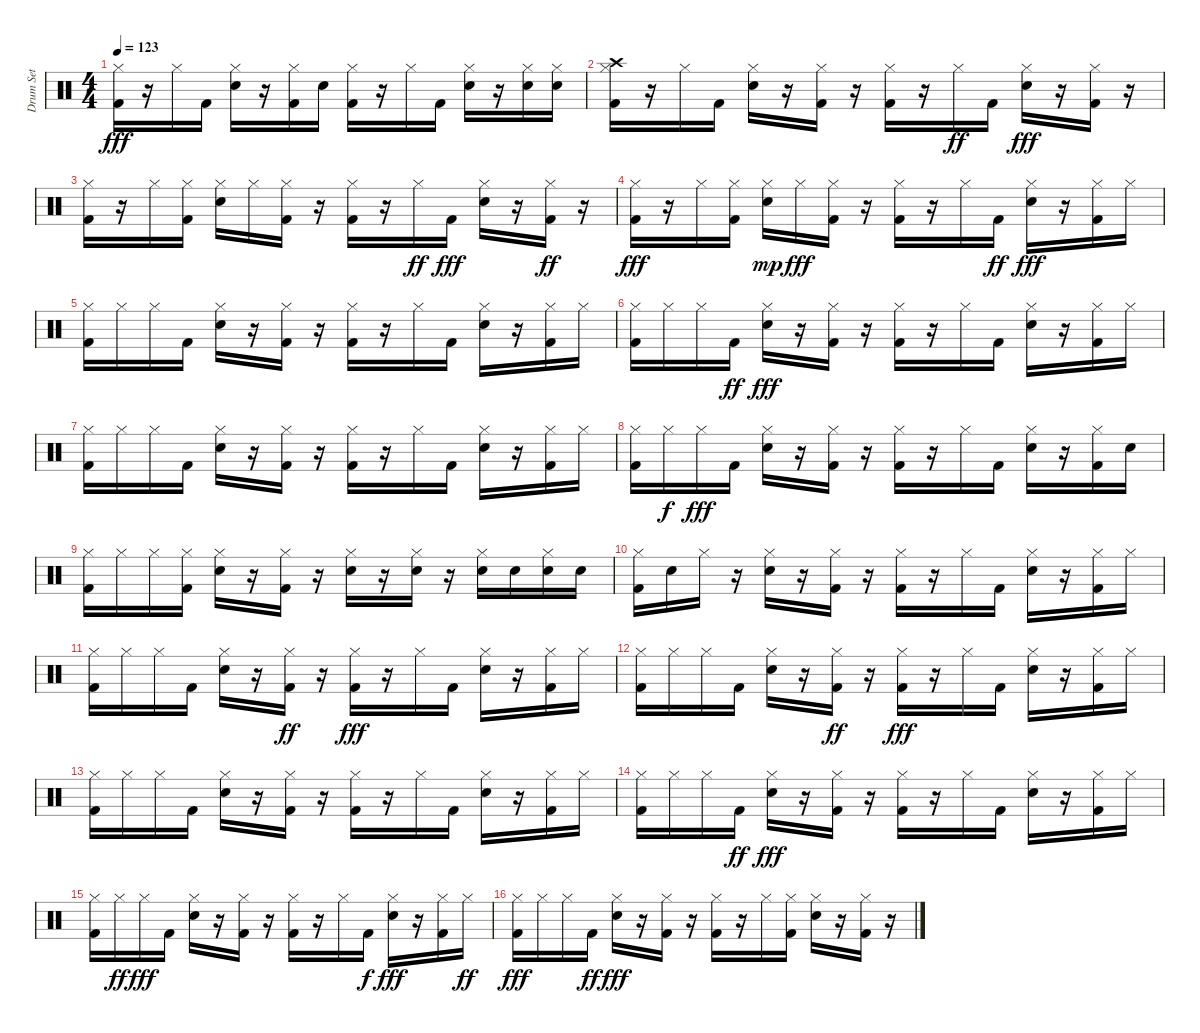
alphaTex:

\track ("Drum Set" "Drum Set") {instrument percussion}
\staff {score}
\articulation defaults
\ts (4 4)
\tempo 123
\clef neutral
\ks c
("Kick (hit) 2" "Hi-Hat (closed)").16{dy fff} r.16 "Hi-Hat (closed)".16 "Kick (hit) 2".16 ("Snare (hit) 2" "Hi-Hat (closed)").16 r.16 ("Kick (hit) 2" "Hi-Hat (closed)").16 "Snare (hit) 2".16 ("Hi-Hat (closed)" "Kick (hit) 2").16 r.16 "Hi-Hat (closed)".16 "Kick (hit) 2".16 ("Snare (hit) 2" "Hi-Hat (closed)").16 r.16 ("Snare (hit) 2" "Hi-Hat (closed)").16 ("Snare (hit) 2" "Hi-Hat (closed)").16 |
("Hi-Hat (closed)" "Crash high (hit)" "Kick (hit) 2").16 r.16 "Hi-Hat (closed)".16 "Kick (hit) 2".16 ("Snare (hit) 2" "Hi-Hat (closed)").16 r.16 ("Kick (hit) 2" "Hi-Hat (closed)").16 r.16 ("Kick (hit) 2" "Hi-Hat (closed)").16 r.16 "Hi-Hat (closed)".16{dy ff} "Kick (hit) 2".16 ("Snare (hit) 2" "Hi-Hat (closed)").16{dy fff} r.16 ("Kick (hit) 2" "Hi-Hat (closed)").16 r.16 |
("Kick (hit) 2" "Hi-Hat (closed)").16 r.16 "Hi-Hat (closed)".16 ("Kick (hit) 2" "Hi-Hat (closed)").16 ("Snare (hit) 2" "Hi-Hat (closed)").16 "Hi-Hat (closed)".16 ("Kick (hit) 2" "Hi-Hat (closed)").16 r.16 ("Kick (hit) 2" "Hi-Hat (closed)").16 r.16 "Hi-Hat (closed)".16{dy ff} "Kick (hit) 2".16{dy fff} ("Snare (hit) 2" "Hi-Hat (closed)").16 r.16 ("Kick (hit) 2" "Hi-Hat (closed)").16{dy ff} r.16 |
("Kick (hit) 2" "Hi-Hat (closed)").16{dy fff} r.16 "Hi-Hat (closed)".16 ("Kick (hit) 2" "Hi-Hat (closed)").16 ("Snare (hit) 2" "Hi-Hat (closed)").16{dy mp} "Hi-Hat (closed)".16{dy fff} ("Kick (hit) 2" "Hi-Hat (closed)").16 r.16 ("Kick (hit) 2" "Hi-Hat (closed)").16 r.16 "Hi-Hat (closed)".16 "Kick (hit) 2".16{dy ff} ("Hi-Hat (closed)" "Snare (hit) 2").16{dy fff} r.16 ("Kick (hit) 2" "Hi-Hat (closed)").16 "Hi-Hat (closed)".16 |
("Hi-Hat (closed)" "Kick (hit) 2").16 "Hi-Hat (closed)".16 "Hi-Hat (closed)".16 "Kick (hit) 2".16 ("Hi-Hat (closed)" "Snare (hit) 2").16 r.16 ("Hi-Hat (closed)" "Kick (hit) 2").16 r.16 ("Kick (hit) 2" "Hi-Hat (closed)").16 r.16 "Hi-Hat (closed)".16 "Kick (hit) 2".16 ("Snare (hit) 2" "Hi-Hat (closed)").16 r.16 ("Kick (hit) 2" "Hi-Hat (closed)").16 "Hi-Hat (closed)".16 |
("Kick (hit) 2" "Hi-Hat (closed)").16 "Hi-Hat (closed)".16 "Hi-Hat (closed)".16 "Kick (hit) 2".16{dy ff} ("Snare (hit) 2" "Hi-Hat (closed)").16{dy fff} r.16 ("Kick (hit) 2" "Hi-Hat (closed)").16 r.16 ("Kick (hit) 2" "Hi-Hat (closed)").16 r.16 "Hi-Hat (closed)".16 "Kick (hit) 2".16 ("Snare (hit) 2" "Hi-Hat (closed)").16 r.16 ("Kick (hit) 2" "Hi-Hat (closed)").16 "Hi-Hat (closed)".16 |
("Hi-Hat (closed)" "Kick (hit) 2").16 "Hi-Hat (closed)".16 "Hi-Hat (closed)".16 "Kick (hit) 2".16 ("Snare (hit) 2" "Hi-Hat (closed)").16 r.16 ("Kick (hit) 2" "Hi-Hat (closed)").16 r.16 ("Kick (hit) 2" "Hi-Hat (closed)").16 r.16 "Hi-Hat (closed)".16 "Kick (hit) 2".16 ("Snare (hit) 2" "Hi-Hat (closed)").16 r.16 ("Kick (hit) 2" "Hi-Hat (closed)").16 "Hi-Hat (closed)".16 |
("Kick (hit) 2" "Hi-Hat (closed)").16 "Hi-Hat (closed)".16{dy f} "Hi-Hat (closed)".16{dy fff} "Kick (hit) 2".16 ("Snare (hit) 2" "Hi-Hat (closed)").16 r.16 ("Kick (hit) 2" "Hi-Hat (closed)").16 r.16 ("Kick (hit) 2" "Hi-Hat (closed)").16 r.16 "Hi-Hat (closed)".16 "Kick (hit) 2".16 ("Snare (hit) 2" "Hi-Hat (closed)").16 r.16 ("Hi-Hat (closed)" "Kick (hit) 2").16 "Snare (hit) 2".16 |
("Kick (hit) 2" "Hi-Hat (closed)").16 "Hi-Hat (closed)".16 "Hi-Hat (closed)".16 ("Hi-Hat (closed)" "Kick (hit) 2").16 ("Snare (hit) 2" "Hi-Hat (closed)").16 r.16 ("Hi-Hat (closed)" "Kick (hit) 2").16 r.16 ("Snare (hit) 2" "Hi-Hat (closed)").16 r.16 ("Snare (hit) 2" "Hi-Hat (closed)").16 r.16 ("Snare (hit) 2" "Hi-Hat (closed)").16 "Snare (hit) 2".16 ("Snare (hit) 2" "Hi-Hat (closed)").16 "Snare (hit) 2".16 |
("Kick (hit) 2" "Hi-Hat (closed)").16 "Snare (hit) 2".16 "Hi-Hat (closed)".16 r.16 ("Snare (hit) 2" "Hi-Hat (closed)").16 r.16 ("Kick (hit) 2" "Hi-Hat (closed)").16 r.16 ("Kick (hit) 2" "Hi-Hat (closed)").16 r.16 "Hi-Hat (closed)".16 "Kick (hit) 2".16 ("Snare (hit) 2" "Hi-Hat (closed)").16 r.16 ("Kick (hit) 2" "Hi-Hat (closed)").16 "Hi-Hat (closed)".16 |
("Hi-Hat (closed)" "Kick (hit) 2").16 "Hi-Hat (closed)".16 "Hi-Hat (closed)".16 "Kick (hit) 2".16 ("Snare (hit) 2" "Hi-Hat (closed)").16 r.16 ("Hi-Hat (closed)" "Kick (hit) 2").16{dy ff} r.16 ("Kick (hit) 2" "Hi-Hat (closed)").16{dy fff} r.16 "Hi-Hat (closed)".16 "Kick (hit) 2".16 ("Snare (hit) 2" "Hi-Hat (closed)").16 r.16 ("Kick (hit) 2" "Hi-Hat (closed)").16 "Hi-Hat (closed)".16 |
("Hi-Hat (closed)" "Kick (hit) 2").16 "Hi-Hat (closed)".16 "Hi-Hat (closed)".16 "Kick (hit) 2".16 ("Snare (hit) 2" "Hi-Hat (closed)").16 r.16 ("Hi-Hat (closed)" "Kick (hit) 2").16{dy ff} r.16 ("Kick (hit) 2" "Hi-Hat (closed)").16{dy fff} r.16 "Hi-Hat (closed)".16 "Kick (hit) 2".16 ("Snare (hit) 2" "Hi-Hat (closed)").16 r.16 ("Kick (hit) 2" "Hi-Hat (closed)").16 "Hi-Hat (closed)".16 |
("Hi-Hat (closed)" "Kick (hit) 2").16 "Hi-Hat (closed)".16 "Hi-Hat (closed)".16 "Kick (hit) 2".16 ("Snare (hit) 2" "Hi-Hat (closed)").16 r.16 ("Kick (hit) 2" "Hi-Hat (closed)").16 r.16 ("Kick (hit) 2" "Hi-Hat (closed)").16 r.16 "Hi-Hat (closed)".16 "Kick (hit) 2".16 ("Snare (hit) 2" "Hi-Hat (closed)").16 r.16 ("Kick (hit) 2" "Hi-Hat (closed)").16 "Hi-Hat (closed)".16 |
("Hi-Hat (closed)" "Kick (hit) 2").16 "Hi-Hat (closed)".16 "Hi-Hat (closed)".16 "Kick (hit) 2".16{dy ff} ("Snare (hit) 2" "Hi-Hat (closed)").16{dy fff} r.16 ("Hi-Hat (closed)" "Kick (hit) 2").16 r.16 ("Kick (hit) 2" "Hi-Hat (closed)").16 r.16 "Hi-Hat (closed)".16 "Kick (hit) 2".16 ("Snare (hit) 2" "Hi-Hat (closed)").16 r.16 ("Kick (hit) 2" "Hi-Hat (closed)").16 "Hi-Hat (closed)".16 |
("Hi-Hat (closed)" "Kick (hit) 2").16 "Hi-Hat (closed)".16{dy ff} "Hi-Hat (closed)".16{dy fff} "Kick (hit) 2".16 ("Snare (hit) 2" "Hi-Hat (closed)").16 r.16 ("Kick (hit) 2" "Hi-Hat (closed)").16 r.16 ("Kick (hit) 2" "Hi-Hat (closed)").16 r.16 "Hi-Hat (closed)".16 "Kick (hit) 2".16{dy f} ("Snare (hit) 2" "Hi-Hat (closed)").16{dy fff} r.16 ("Kick (hit) 2" "Hi-Hat (closed)").16 "Hi-Hat (closed)".16{dy ff} |
("Kick (hit) 2" "Hi-Hat (closed)").16{dy fff} "Hi-Hat (closed)".16 "Hi-Hat (closed)".16 "Kick (hit) 2".16{dy ff} ("Snare (hit) 2" "Hi-Hat (closed)").16{dy fff} r.16 ("Kick (hit) 2" "Hi-Hat (closed)").16 r.16 ("Kick (hit) 2" "Hi-Hat (closed)").16 r.16 "Hi-Hat (closed)".16 ("Hi-Hat (closed)" "Kick (hit) 2").16 ("Hi-Hat (closed)" "Snare (hit) 2").16 r.16 ("Kick (hit) 2" "Hi-Hat (closed)").16 r.16
